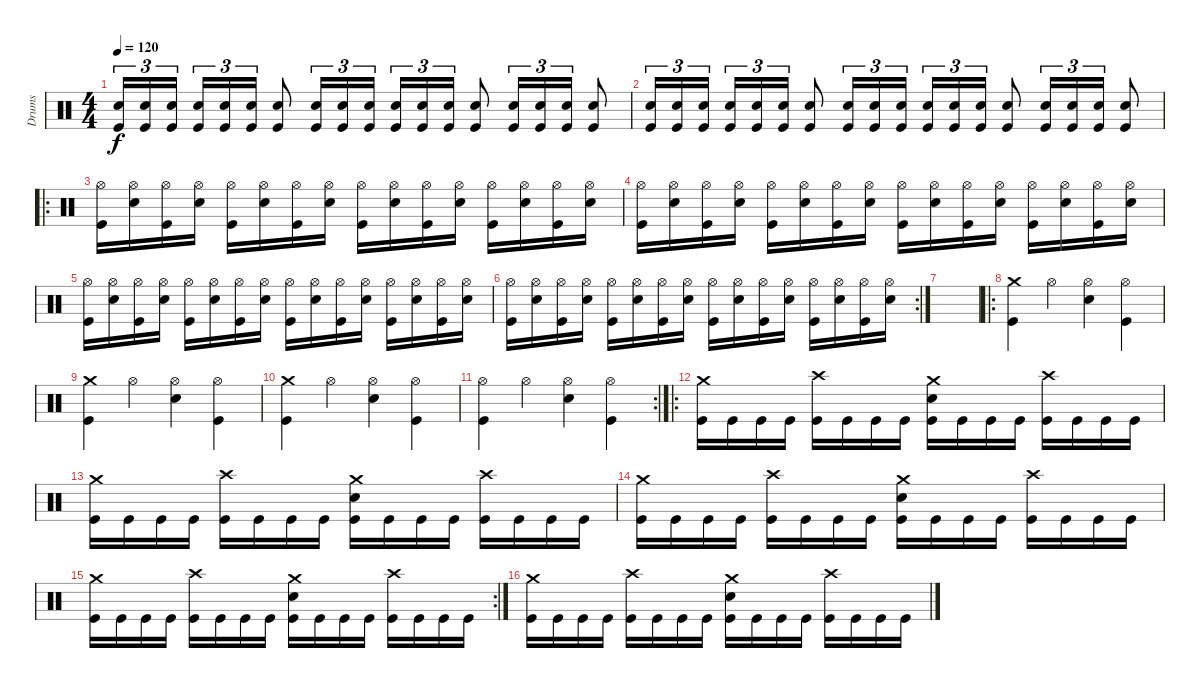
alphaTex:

\track ("Drums" "Drums") {instrument percussion}
\staff {score}
\articulation defaults
\ts (4 4)
\tempo 120
\clef neutral
\ks c
("Snare (hit) 2" "Kick (hit)").16{tu (3 2) dy f} ("Snare (hit) 2" "Kick (hit)").16{tu (3 2)} ("Snare (hit) 2" "Kick (hit)").16{tu (3 2) beam splitsecondary} ("Snare (hit) 2" "Kick (hit)").16{tu (3 2)} ("Snare (hit) 2" "Kick (hit)").16{tu (3 2)} ("Snare (hit) 2" "Kick (hit)").16{tu (3 2)} ("Snare (hit) 2" "Kick (hit)").8 ("Snare (hit) 2" "Kick (hit)").16{tu (3 2)} ("Snare (hit) 2" "Kick (hit)").16{tu (3 2)} ("Snare (hit) 2" "Kick (hit)").16{tu (3 2)} ("Snare (hit) 2" "Kick (hit)").16{tu (3 2)} ("Snare (hit) 2" "Kick (hit)").16{tu (3 2)} ("Snare (hit) 2" "Kick (hit)").16{tu (3 2)} ("Snare (hit) 2" "Kick (hit)").8 ("Snare (hit) 2" "Kick (hit)").16{tu (3 2)} ("Snare (hit) 2" "Kick (hit)").16{tu (3 2)} ("Snare (hit) 2" "Kick (hit)").16{tu (3 2)} ("Snare (hit) 2" "Kick (hit)").8 |
("Snare (hit) 2" "Kick (hit)").16{tu (3 2)} ("Snare (hit) 2" "Kick (hit)").16{tu (3 2)} ("Snare (hit) 2" "Kick (hit)").16{tu (3 2) beam splitsecondary} ("Snare (hit) 2" "Kick (hit)").16{tu (3 2)} ("Snare (hit) 2" "Kick (hit)").16{tu (3 2)} ("Snare (hit) 2" "Kick (hit)").16{tu (3 2)} ("Snare (hit) 2" "Kick (hit)").8 ("Snare (hit) 2" "Kick (hit)").16{tu (3 2)} ("Snare (hit) 2" "Kick (hit)").16{tu (3 2)} ("Snare (hit) 2" "Kick (hit)").16{tu (3 2)} ("Snare (hit) 2" "Kick (hit)").16{tu (3 2)} ("Snare (hit) 2" "Kick (hit)").16{tu (3 2)} ("Snare (hit) 2" "Kick (hit)").16{tu (3 2)} ("Snare (hit) 2" "Kick (hit)").8 ("Snare (hit) 2" "Kick (hit)").16{tu (3 2)} ("Snare (hit) 2" "Kick (hit)").16{tu (3 2)} ("Snare (hit) 2" "Kick (hit)").16{tu (3 2)} ("Snare (hit) 2" "Kick (hit)").8 |
\ro
("Hi-Hat (open)" "Kick (hit)").16 ("Hi-Hat (open)" "Snare (hit) 2").16 ("Hi-Hat (open)" "Kick (hit)").16 ("Hi-Hat (open)" "Snare (hit) 2").16 ("Hi-Hat (open)" "Kick (hit)").16 ("Hi-Hat (open)" "Snare (hit) 2").16 ("Hi-Hat (open)" "Kick (hit)").16 ("Hi-Hat (open)" "Snare (hit) 2").16 ("Hi-Hat (open)" "Kick (hit)").16 ("Hi-Hat (open)" "Snare (hit) 2").16 ("Hi-Hat (open)" "Kick (hit)").16 ("Hi-Hat (open)" "Snare (hit) 2").16 ("Hi-Hat (open)" "Kick (hit)").16 ("Hi-Hat (open)" "Snare (hit) 2").16 ("Hi-Hat (open)" "Kick (hit)").16 ("Hi-Hat (open)" "Snare (hit) 2").16 |
("Hi-Hat (open)" "Kick (hit)").16 ("Hi-Hat (open)" "Snare (hit) 2").16 ("Hi-Hat (open)" "Kick (hit)").16 ("Hi-Hat (open)" "Snare (hit) 2").16 ("Hi-Hat (open)" "Kick (hit)").16 ("Hi-Hat (open)" "Snare (hit) 2").16 ("Hi-Hat (open)" "Kick (hit)").16 ("Hi-Hat (open)" "Snare (hit) 2").16 ("Hi-Hat (open)" "Kick (hit)").16 ("Hi-Hat (open)" "Snare (hit) 2").16 ("Hi-Hat (open)" "Kick (hit)").16 ("Hi-Hat (open)" "Snare (hit) 2").16 ("Hi-Hat (open)" "Kick (hit)").16 ("Hi-Hat (open)" "Snare (hit) 2").16 ("Hi-Hat (open)" "Kick (hit)").16 ("Hi-Hat (open)" "Snare (hit) 2").16 |
("Hi-Hat (open)" "Kick (hit)").16 ("Hi-Hat (open)" "Snare (hit) 2").16 ("Hi-Hat (open)" "Kick (hit)").16 ("Hi-Hat (open)" "Snare (hit) 2").16 ("Hi-Hat (open)" "Kick (hit)").16 ("Hi-Hat (open)" "Snare (hit) 2").16 ("Hi-Hat (open)" "Kick (hit)").16 ("Hi-Hat (open)" "Snare (hit) 2").16 ("Hi-Hat (open)" "Kick (hit)").16 ("Hi-Hat (open)" "Snare (hit) 2").16 ("Hi-Hat (open)" "Kick (hit)").16 ("Hi-Hat (open)" "Snare (hit) 2").16 ("Hi-Hat (open)" "Kick (hit)").16 ("Hi-Hat (open)" "Snare (hit) 2").16 ("Hi-Hat (open)" "Kick (hit)").16 ("Hi-Hat (open)" "Snare (hit) 2").16 |
\rc 2
("Hi-Hat (open)" "Kick (hit)").16 ("Hi-Hat (open)" "Snare (hit) 2").16 ("Hi-Hat (open)" "Kick (hit)").16 ("Hi-Hat (open)" "Snare (hit) 2").16 ("Hi-Hat (open)" "Kick (hit)").16 ("Hi-Hat (open)" "Snare (hit) 2").16 ("Hi-Hat (open)" "Kick (hit)").16 ("Hi-Hat (open)" "Snare (hit) 2").16 ("Hi-Hat (open)" "Kick (hit)").16 ("Hi-Hat (open)" "Snare (hit) 2").16 ("Hi-Hat (open)" "Kick (hit)").16 ("Hi-Hat (open)" "Snare (hit) 2").16 ("Hi-Hat (open)" "Kick (hit)").16 ("Hi-Hat (open)" "Snare (hit) 2").16 ("Hi-Hat (open)" "Kick (hit)").16 ("Hi-Hat (open)" "Snare (hit) 2").16 |
|
\ro
("Crash medium (hit)" "Kick (hit)").4 "Hi-Hat (open)".4 ("Hi-Hat (open)" "Snare (hit) 2").4 ("Hi-Hat (open)" "Kick (hit)").4 |
("Crash medium (hit)" "Kick (hit)").4 "Hi-Hat (open)".4 ("Hi-Hat (open)" "Snare (hit) 2").4 ("Hi-Hat (open)" "Kick (hit)").4 |
("Crash medium (hit)" "Kick (hit)").4 "Hi-Hat (open)".4 ("Hi-Hat (open)" "Snare (hit) 2").4 ("Hi-Hat (open)" "Kick (hit)").4 |
\rc 2
("Hi-Hat (open)" "Kick (hit)").4 "Hi-Hat (open)".4 ("Hi-Hat (open)" "Snare (hit) 2").4 ("Hi-Hat (open)" "Kick (hit)").4 |
\ro
("Crash medium (hit)" "Kick (hit)").16 "Kick (hit)".16 "Kick (hit)".16 "Kick (hit)".16 ("Crash high (hit)" "Kick (hit)").16 "Kick (hit)".16 "Kick (hit)".16 "Kick (hit)".16 ("Crash medium (hit)" "Snare (hit) 2" "Kick (hit)").16 "Kick (hit)".16 "Kick (hit)".16 "Kick (hit)".16 ("Crash high (hit)" "Kick (hit)").16 "Kick (hit)".16 "Kick (hit)".16 "Kick (hit)".16 |
("Crash medium (hit)" "Kick (hit)").16 "Kick (hit)".16 "Kick (hit)".16 "Kick (hit)".16 ("Crash high (hit)" "Kick (hit)").16 "Kick (hit)".16 "Kick (hit)".16 "Kick (hit)".16 ("Crash medium (hit)" "Snare (hit) 2" "Kick (hit)").16 "Kick (hit)".16 "Kick (hit)".16 "Kick (hit)".16 ("Crash high (hit)" "Kick (hit)").16 "Kick (hit)".16 "Kick (hit)".16 "Kick (hit)".16 |
("Crash medium (hit)" "Kick (hit)").16 "Kick (hit)".16 "Kick (hit)".16 "Kick (hit)".16 ("Crash high (hit)" "Kick (hit)").16 "Kick (hit)".16 "Kick (hit)".16 "Kick (hit)".16 ("Crash medium (hit)" "Snare (hit) 2" "Kick (hit)").16 "Kick (hit)".16 "Kick (hit)".16 "Kick (hit)".16 ("Crash high (hit)" "Kick (hit)").16 "Kick (hit)".16 "Kick (hit)".16 "Kick (hit)".16 |
\rc 2
("Crash medium (hit)" "Kick (hit)").16 "Kick (hit)".16 "Kick (hit)".16 "Kick (hit)".16 ("Crash high (hit)" "Kick (hit)").16 "Kick (hit)".16 "Kick (hit)".16 "Kick (hit)".16 ("Crash medium (hit)" "Snare (hit) 2" "Kick (hit)").16 "Kick (hit)".16 "Kick (hit)".16 "Kick (hit)".16 ("Crash high (hit)" "Kick (hit)").16 "Kick (hit)".16 "Kick (hit)".16 "Kick (hit)".16 |
("Crash medium (hit)" "Kick (hit)").16 "Kick (hit)".16 "Kick (hit)".16 "Kick (hit)".16 ("Crash high (hit)" "Kick (hit)").16 "Kick (hit)".16 "Kick (hit)".16 "Kick (hit)".16 ("Crash medium (hit)" "Snare (hit) 2" "Kick (hit)").16 "Kick (hit)".16 "Kick (hit)".16 "Kick (hit)".16 ("Crash high (hit)" "Kick (hit)").16 "Kick (hit)".16 "Kick (hit)".16 "Kick (hit)".16
